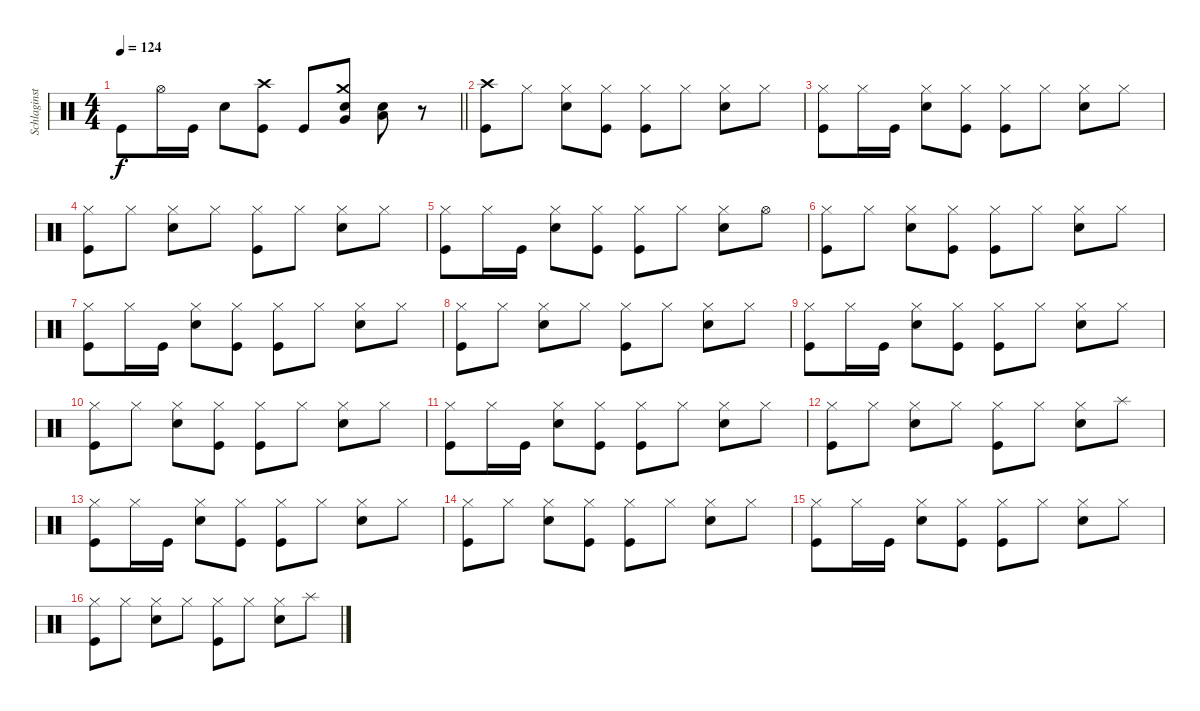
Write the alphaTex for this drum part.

\track ("Schlaginstrumente - Auswahl" "Schlaginst") {instrument percussion}
\staff {score}
\articulation defaults
\ts (4 4)
\tempo 124
\clef neutral
\barLineRight lightlight
\ks c "Kick (hit)".8{dy f} "Hi-Hat (open)".16 "Kick (hit)".16 "Snare (hit) 2".8
("Crash high (hit)" "Kick (hit)").8 "Kick (hit)".8 ("Crash medium (hit)" "Very Low Tom (hit)" "Snare (hit) 2").8 ("Low Floor Tom (hit)" "Snare (hit) 2").8 r.8 |
("Crash high (hit)" "Kick (hit)").8 "Hi-Hat (closed)".8 ("Hi-Hat (closed)" "Snare (hit) 2").8 ("Hi-Hat (closed)" "Kick (hit)").8 ("Hi-Hat (closed)" "Kick (hit)").8 "Hi-Hat (closed)".8 ("Hi-Hat (closed)" "Snare (hit) 2").8 "Hi-Hat (closed)".8 |
("Hi-Hat (closed)" "Kick (hit)").8 "Hi-Hat (closed)".16 "Kick (hit)".16 ("Hi-Hat (closed)" "Snare (hit) 2").8 ("Hi-Hat (closed)" "Kick (hit)").8 ("Hi-Hat (closed)" "Kick (hit)").8 "Hi-Hat (closed)".8 ("Hi-Hat (closed)" "Snare (hit) 2").8 "Hi-Hat (closed)".8 |
("Hi-Hat (closed)" "Kick (hit)").8 "Hi-Hat (closed)".8 ("Hi-Hat (closed)" "Snare (hit) 2").8 "Hi-Hat (closed)".8 ("Hi-Hat (closed)" "Kick (hit)").8 "Hi-Hat (closed)".8 ("Hi-Hat (closed)" "Snare (hit) 2").8 "Hi-Hat (closed)".8 |
("Hi-Hat (closed)" "Kick (hit)").8 "Hi-Hat (closed)".16 "Kick (hit)".16 ("Hi-Hat (closed)" "Snare (hit) 2").8 ("Hi-Hat (closed)" "Kick (hit)").8 ("Hi-Hat (closed)" "Kick (hit)").8 "Hi-Hat (closed)".8 ("Hi-Hat (closed)" "Snare (hit) 2").8 "Hi-Hat (open)".8 |
("Hi-Hat (closed)" "Kick (hit)").8 "Hi-Hat (closed)".8 ("Hi-Hat (closed)" "Snare (hit) 2").8 ("Hi-Hat (closed)" "Kick (hit)").8 ("Hi-Hat (closed)" "Kick (hit)").8 "Hi-Hat (closed)".8 ("Hi-Hat (closed)" "Snare (hit) 2").8 "Hi-Hat (closed)".8 |
("Hi-Hat (closed)" "Kick (hit)").8 "Hi-Hat (closed)".16 "Kick (hit)".16 ("Hi-Hat (closed)" "Snare (hit) 2").8 ("Hi-Hat (closed)" "Kick (hit)").8 ("Hi-Hat (closed)" "Kick (hit)").8 "Hi-Hat (closed)".8 ("Hi-Hat (closed)" "Snare (hit) 2").8 "Hi-Hat (closed)".8 |
("Hi-Hat (closed)" "Kick (hit)").8 "Hi-Hat (closed)".8 ("Hi-Hat (closed)" "Snare (hit) 2").8 "Hi-Hat (closed)".8 ("Hi-Hat (closed)" "Kick (hit)").8 "Hi-Hat (closed)".8 ("Hi-Hat (closed)" "Snare (hit) 2").8 "Hi-Hat (closed)".8 |
("Hi-Hat (closed)" "Kick (hit)").8 "Hi-Hat (closed)".16 "Kick (hit)".16 ("Hi-Hat (closed)" "Snare (hit) 2").8 ("Hi-Hat (closed)" "Kick (hit)").8 ("Hi-Hat (closed)" "Kick (hit)").8 "Hi-Hat (closed)".8 ("Hi-Hat (closed)" "Snare (hit) 2").8 "Hi-Hat (closed)".8 |
("Hi-Hat (closed)" "Kick (hit)").8 "Hi-Hat (closed)".8 ("Hi-Hat (closed)" "Snare (hit) 2").8 ("Hi-Hat (closed)" "Kick (hit)").8 ("Hi-Hat (closed)" "Kick (hit)").8 "Hi-Hat (closed)".8 ("Hi-Hat (closed)" "Snare (hit) 2").8 "Hi-Hat (closed)".8 |
("Hi-Hat (closed)" "Kick (hit)").8 "Hi-Hat (closed)".16 "Kick (hit)".16 ("Hi-Hat (closed)" "Snare (hit) 2").8 ("Hi-Hat (closed)" "Kick (hit)").8 ("Hi-Hat (closed)" "Kick (hit)").8 "Hi-Hat (closed)".8 ("Hi-Hat (closed)" "Snare (hit) 2").8 "Hi-Hat (closed)".8 |
("Hi-Hat (closed)" "Kick (hit)").8 "Hi-Hat (closed)".8 ("Hi-Hat (closed)" "Snare (hit) 2").8 "Hi-Hat (closed)".8 ("Hi-Hat (closed)" "Kick (hit)").8 "Hi-Hat (closed)".8 ("Hi-Hat (closed)" "Snare (hit) 2").8 "Splash (hit)".8 |
("Hi-Hat (closed)" "Kick (hit)").8 "Hi-Hat (closed)".16 "Kick (hit)".16 ("Hi-Hat (closed)" "Snare (hit) 2").8 ("Hi-Hat (closed)" "Kick (hit)").8 ("Hi-Hat (closed)" "Kick (hit)").8 "Hi-Hat (closed)".8 ("Hi-Hat (closed)" "Snare (hit) 2").8 "Hi-Hat (closed)".8 |
("Hi-Hat (closed)" "Kick (hit)").8 "Hi-Hat (closed)".8 ("Hi-Hat (closed)" "Snare (hit) 2").8 ("Hi-Hat (closed)" "Kick (hit)").8 ("Hi-Hat (closed)" "Kick (hit)").8 "Hi-Hat (closed)".8 ("Hi-Hat (closed)" "Snare (hit) 2").8 "Hi-Hat (closed)".8 |
("Hi-Hat (closed)" "Kick (hit)").8 "Hi-Hat (closed)".16 "Kick (hit)".16 ("Hi-Hat (closed)" "Snare (hit) 2").8 ("Hi-Hat (closed)" "Kick (hit)").8 ("Hi-Hat (closed)" "Kick (hit)").8 "Hi-Hat (closed)".8 ("Hi-Hat (closed)" "Snare (hit) 2").8 "Hi-Hat (closed)".8 |
("Hi-Hat (closed)" "Kick (hit)").8 "Hi-Hat (closed)".8 ("Hi-Hat (closed)" "Snare (hit) 2").8 "Hi-Hat (closed)".8 ("Hi-Hat (closed)" "Kick (hit)").8 "Hi-Hat (closed)".8 ("Hi-Hat (closed)" "Snare (hit) 2").8 "Splash (hit)".8
